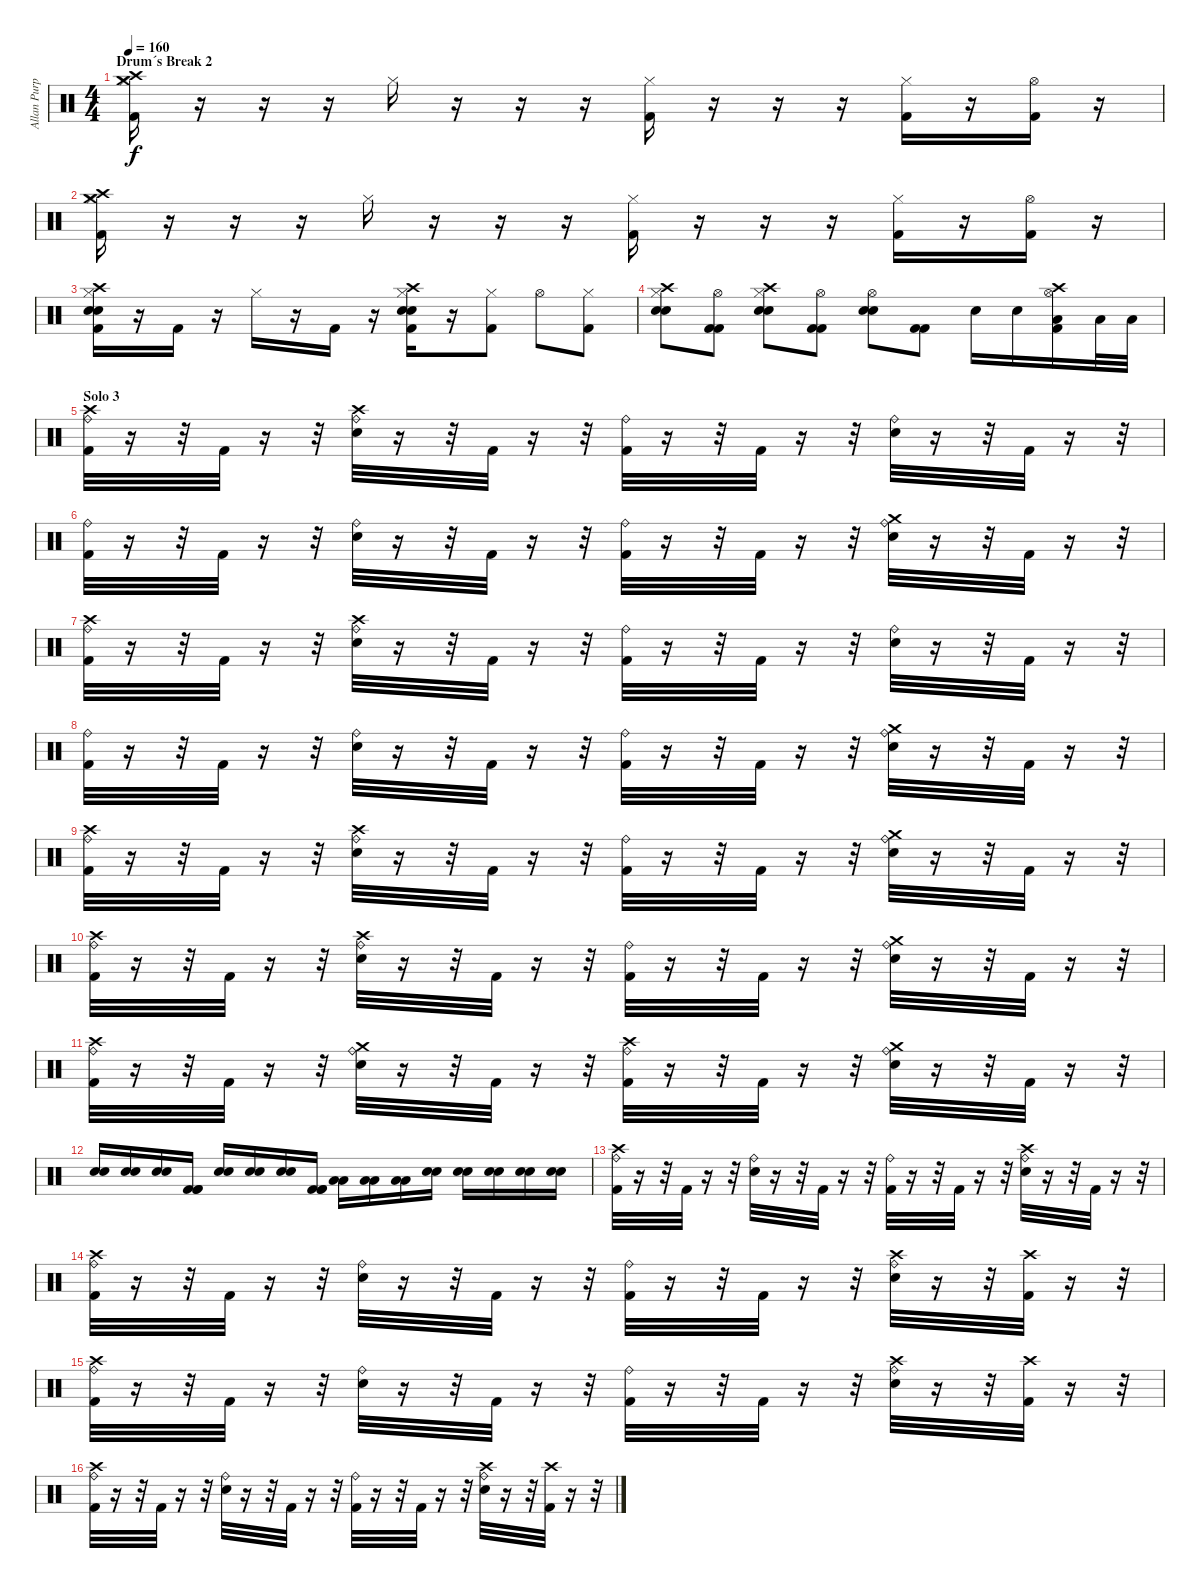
\track ("Allan Purple" "Allan Purp") {instrument percussion}
\staff {score}
\articulation defaults
\ts (4 4)
\section ("" "Drum´s Break 2")
\tempo 160
\clef neutral
\ks c
("Crash high (hit)" "Crash medium (hit)" "Hi-Hat (closed)" "Kick (hit) 2").16{dy f} r.16 r.16 r.16 "Hi-Hat (closed)".16 r.16 r.16 r.16 ("Hi-Hat (closed)" "Kick (hit) 2").16 r.16 r.16 r.16 ("Hi-Hat (closed)" "Kick (hit) 2").16 r.16 ("Hi-Hat (open)" "Kick (hit) 2").16 r.16 |
("Crash high (hit)" "Crash medium (hit)" "Hi-Hat (closed)" "Kick (hit) 2").16 r.16 r.16 r.16 "Hi-Hat (closed)".16 r.16 r.16 r.16 ("Hi-Hat (closed)" "Kick (hit) 2").16 r.16 r.16 r.16 ("Hi-Hat (closed)" "Kick (hit) 2").16 r.16 ("Hi-Hat (open)" "Kick (hit) 2").16 r.16 |
("Crash high (hit)" "Hi-Hat (closed)" "Electric Snare (hit)" "Electric Snare (hit)" "Kick (hit) 2").16 r.16 "Kick (hit) 2".16 r.16 "Hi-Hat (closed)".16 r.16 "Kick (hit) 2".16 r.16 ("Crash high (hit)" "Hi-Hat (closed)" "Electric Snare (hit)" "Electric Snare (hit)" "Kick (hit) 2").16 r.16 ("Hi-Hat (closed)" "Kick (hit) 2").8 "Hi-Hat (open)".8 ("Hi-Hat (closed)" "Kick (hit) 2").8 |
("Crash high (hit)" "Hi-Hat (closed)" "Electric Snare (hit)" "Electric Snare (hit)").8 ("Hi-Hat (open)" "Kick (hit) 2" "Kick (hit) 2").8 ("Crash high (hit)" "Hi-Hat (closed)" "Electric Snare (hit)" "Electric Snare (hit)").8 ("Hi-Hat (open)" "Kick (hit) 2" "Kick (hit) 2").8 ("Hi-Hat (open)" "Electric Snare (hit)" "Electric Snare (hit)").8 ("Kick (hit) 2" "Kick (hit) 2").8 "Electric Snare (hit)".16 "Electric Snare (hit)".16 ("Crash high (hit)" "Hi-Hat (open)" "Kick (hit) 2" "Low Tom (hit)").16 "Low Tom (hit)".32 "Low Tom (hit)".32 |
\section ("" "Solo 3")
("Crash high (hit)" "Ride (bell)" "Kick (hit) 2").32 r.16 r.32 "Kick (hit) 2".32 r.16 r.32 ("Crash high (hit)" "Ride (bell)" "Electric Snare (hit)").32 r.16 r.32 "Kick (hit) 2".32 r.16 r.32 ("Ride (bell)" "Kick (hit) 2").32 r.16 r.32 "Kick (hit) 2".32 r.16 r.32 ("Ride (bell)" "Electric Snare (hit)").32 r.16 r.32 "Kick (hit) 2".32 r.16 r.32 |
("Ride (bell)" "Kick (hit) 2").32 r.16 r.32 "Kick (hit) 2".32 r.16 r.32 ("Ride (bell)" "Electric Snare (hit)").32 r.16 r.32 "Kick (hit) 2".32 r.16 r.32 ("Ride (bell)" "Kick (hit) 2").32 r.16 r.32 "Kick (hit) 2".32 r.16 r.32 ("Crash medium (hit)" "Ride (bell)" "Electric Snare (hit)").32 r.16 r.32 "Kick (hit) 2".32 r.16 r.32 |
("Crash high (hit)" "Ride (bell)" "Kick (hit) 2").32 r.16 r.32 "Kick (hit) 2".32 r.16 r.32 ("Crash high (hit)" "Ride (bell)" "Electric Snare (hit)").32 r.16 r.32 "Kick (hit) 2".32 r.16 r.32 ("Ride (bell)" "Kick (hit) 2").32 r.16 r.32 "Kick (hit) 2".32 r.16 r.32 ("Ride (bell)" "Electric Snare (hit)").32 r.16 r.32 "Kick (hit) 2".32 r.16 r.32 |
("Ride (bell)" "Kick (hit) 2").32 r.16 r.32 "Kick (hit) 2".32 r.16 r.32 ("Ride (bell)" "Electric Snare (hit)").32 r.16 r.32 "Kick (hit) 2".32 r.16 r.32 ("Ride (bell)" "Kick (hit) 2").32 r.16 r.32 "Kick (hit) 2".32 r.16 r.32 ("Crash medium (hit)" "Ride (bell)" "Electric Snare (hit)").32 r.16 r.32 "Kick (hit) 2".32 r.16 r.32 |
("Crash high (hit)" "Ride (bell)" "Kick (hit) 2").32 r.16 r.32 "Kick (hit) 2".32 r.16 r.32 ("Crash high (hit)" "Ride (bell)" "Electric Snare (hit)").32 r.16 r.32 "Kick (hit) 2".32 r.16 r.32 ("Ride (bell)" "Kick (hit) 2").32 r.16 r.32 "Kick (hit) 2".32 r.16 r.32 ("Crash medium (hit)" "Ride (bell)" "Electric Snare (hit)").32 r.16 r.32 "Kick (hit) 2".32 r.16 r.32 |
("Crash high (hit)" "Ride (bell)" "Kick (hit) 2").32 r.16 r.32 "Kick (hit) 2".32 r.16 r.32 ("Crash high (hit)" "Ride (bell)" "Electric Snare (hit)").32 r.16 r.32 "Kick (hit) 2".32 r.16 r.32 ("Ride (bell)" "Kick (hit) 2").32 r.16 r.32 "Kick (hit) 2".32 r.16 r.32 ("Crash medium (hit)" "Ride (bell)" "Electric Snare (hit)").32 r.16 r.32 "Kick (hit) 2".32 r.16 r.32 |
("Crash high (hit)" "Ride (bell)" "Kick (hit) 2").32 r.16 r.32 "Kick (hit) 2".32 r.16 r.32 ("Crash medium (hit)" "Ride (bell)" "Electric Snare (hit)").32 r.16 r.32 "Kick (hit) 2".32 r.16 r.32 ("Crash high (hit)" "Ride (bell)" "Kick (hit) 2").32 r.16 r.32 "Kick (hit) 2".32 r.16 r.32 ("Crash medium (hit)" "Ride (bell)" "Electric Snare (hit)").32 r.16 r.32 "Kick (hit) 2".32 r.16 r.32 |
("Electric Snare (hit)" "Electric Snare (hit)").16 ("Electric Snare (hit)" "Electric Snare (hit)").16 ("Electric Snare (hit)" "Electric Snare (hit)").16 ("Kick (hit) 2" "Kick (hit) 2" "Kick (hit) 2").16 ("Electric Snare (hit)" "Electric Snare (hit)").16 ("Electric Snare (hit)" "Electric Snare (hit)").16 ("Electric Snare (hit)" "Electric Snare (hit)").16 ("Kick (hit) 2" "Kick (hit) 2" "Kick (hit) 2").16 ("Low Tom (hit)" "Low Tom (hit)").16 ("Low Tom (hit)" "Low Tom (hit)").16 ("Low Tom (hit)" "Low Tom (hit)").16 ("Electric Snare (hit)" "Electric Snare (hit)").16 ("Electric Snare (hit)" "Electric Snare (hit)").16 ("Electric Snare (hit)" "Electric Snare (hit)").16 ("Electric Snare (hit)" "Electric Snare (hit)").16 ("Electric Snare (hit)" "Electric Snare (hit)").16 |
("Crash high (hit)" "Ride (bell)" "Kick (hit) 2").32 r.16 r.32 "Kick (hit) 2".32 r.16 r.32 ("Ride (bell)" "Electric Snare (hit)").32 r.16 r.32 "Kick (hit) 2".32 r.16 r.32 ("Ride (bell)" "Kick (hit) 2").32 r.16 r.32 "Kick (hit) 2".32 r.16 r.32 ("Crash high (hit)" "Ride (bell)" "Electric Snare (hit)").32 r.16 r.32 "Kick (hit) 2".32 r.16 r.32 |
("Crash high (hit)" "Ride (bell)" "Kick (hit) 2").32 r.16 r.32 "Kick (hit) 2".32 r.16 r.32 ("Ride (bell)" "Electric Snare (hit)").32 r.16 r.32 "Kick (hit) 2".32 r.16 r.32 ("Ride (bell)" "Kick (hit) 2").32 r.16 r.32 "Kick (hit) 2".32 r.16 r.32 ("Crash high (hit)" "Ride (bell)" "Electric Snare (hit)").32 r.16 r.32 ("Crash high (hit)" "Kick (hit) 2").32 r.16 r.32 |
("Crash high (hit)" "Ride (bell)" "Kick (hit) 2").32 r.16 r.32 "Kick (hit) 2".32 r.16 r.32 ("Ride (bell)" "Electric Snare (hit)").32 r.16 r.32 "Kick (hit) 2".32 r.16 r.32 ("Ride (bell)" "Kick (hit) 2").32 r.16 r.32 "Kick (hit) 2".32 r.16 r.32 ("Crash high (hit)" "Ride (bell)" "Electric Snare (hit)").32 r.16 r.32 ("Crash high (hit)" "Kick (hit) 2").32 r.16 r.32 |
("Crash high (hit)" "Ride (bell)" "Kick (hit) 2").32 r.16 r.32 "Kick (hit) 2".32 r.16 r.32 ("Ride (bell)" "Electric Snare (hit)").32 r.16 r.32 "Kick (hit) 2".32 r.16 r.32 ("Ride (bell)" "Kick (hit) 2").32 r.16 r.32 "Kick (hit) 2".32 r.16 r.32 ("Crash high (hit)" "Ride (bell)" "Electric Snare (hit)").32 r.16 r.32 ("Crash high (hit)" "Kick (hit) 2").32 r.16 r.32
